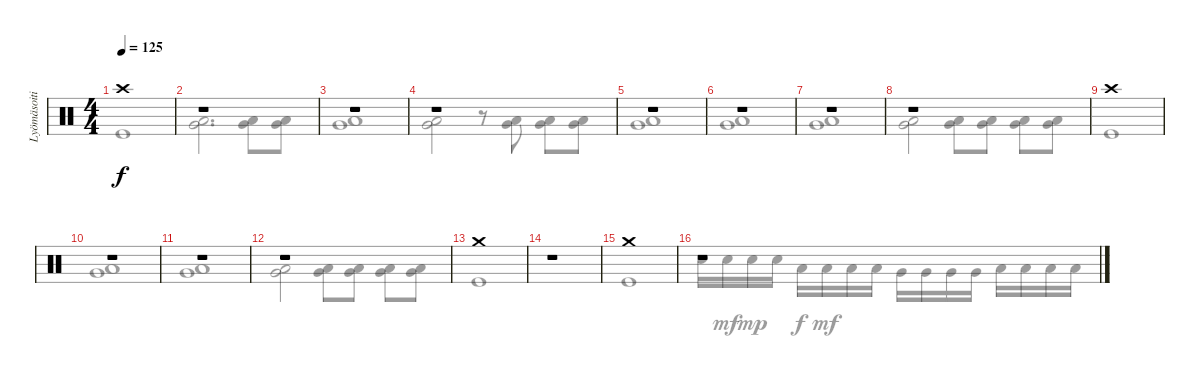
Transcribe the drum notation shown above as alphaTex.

\track ("Lyömäsoitin" "Lyömäsoiti") {instrument percussion}
\staff {score}
\articulation defaults
\voice
\ts (4 4)
\tempo 125
\clef neutral
\ks c "Crash high (hit)".1{dy f}
|
r.1 |
r.1 |
r.1 |
r.1 |
r.1 |
r.1 |
r.1 |
"Crash high (hit)".1 |
r.1 |
r.1 |
r.1 |
"Crash medium (hit)".1 |
r.1 |
"Crash medium (hit)".1 |
r.1
\voice
\clef neutral
\ottava regular
\simile none
\ks c "Kick (hit)".1{dy f}
|
("Very Low Tom (hit)" "Low Floor Tom (hit)").2{d} ("Very Low Tom (hit)" "Low Floor Tom (hit)").8 ("Very Low Tom (hit)" "Low Floor Tom (hit)").8 |
("Very Low Tom (hit)" "Low Floor Tom (hit)").1 |
("Very Low Tom (hit)" "Low Floor Tom (hit)").2 r.8 ("Very Low Tom (hit)" "Low Floor Tom (hit)").8 ("Very Low Tom (hit)" "Low Floor Tom (hit)").8 ("Very Low Tom (hit)" "Low Floor Tom (hit)").8 |
("Very Low Tom (hit)" "Low Floor Tom (hit)").1 |
("Very Low Tom (hit)" "Low Floor Tom (hit)").1 |
("Very Low Tom (hit)" "Low Floor Tom (hit)").1 |
("Very Low Tom (hit)" "Low Floor Tom (hit)").2 ("Very Low Tom (hit)" "Low Floor Tom (hit)").8 ("Very Low Tom (hit)" "Low Floor Tom (hit)").8 ("Very Low Tom (hit)" "Low Floor Tom (hit)").8 ("Very Low Tom (hit)" "Low Floor Tom (hit)").8 |
"Kick (hit)".1 |
("Very Low Tom (hit)" "Low Floor Tom (hit)").1 |
("Very Low Tom (hit)" "Low Floor Tom (hit)").1 |
("Very Low Tom (hit)" "Low Floor Tom (hit)").2 ("Very Low Tom (hit)" "Low Floor Tom (hit)").8 ("Very Low Tom (hit)" "Low Floor Tom (hit)").8 ("Very Low Tom (hit)" "Low Floor Tom (hit)").8 ("Very Low Tom (hit)" "Low Floor Tom (hit)").8 |
"Kick (hit)".1 |
r.1 |
"Kick (hit)".1 |
"Snare (hit) 2".16 "Snare (hit) 2".16{dy mf} "Snare (hit) 2".16{dy mp} "Snare (hit) 2".16 "Low Tom (hit)".16{dy f} "Low Tom (hit)".16{dy mf} "Low Tom (hit)".16 "Low Tom (hit)".16 "Very Low Tom (hit)".16 "Very Low Tom (hit)".16 "Very Low Tom (hit)".16 "Very Low Tom (hit)".16 "Low Floor Tom (hit)".16 "Low Floor Tom (hit)".16 "Low Floor Tom (hit)".16 "Low Floor Tom (hit)".16
